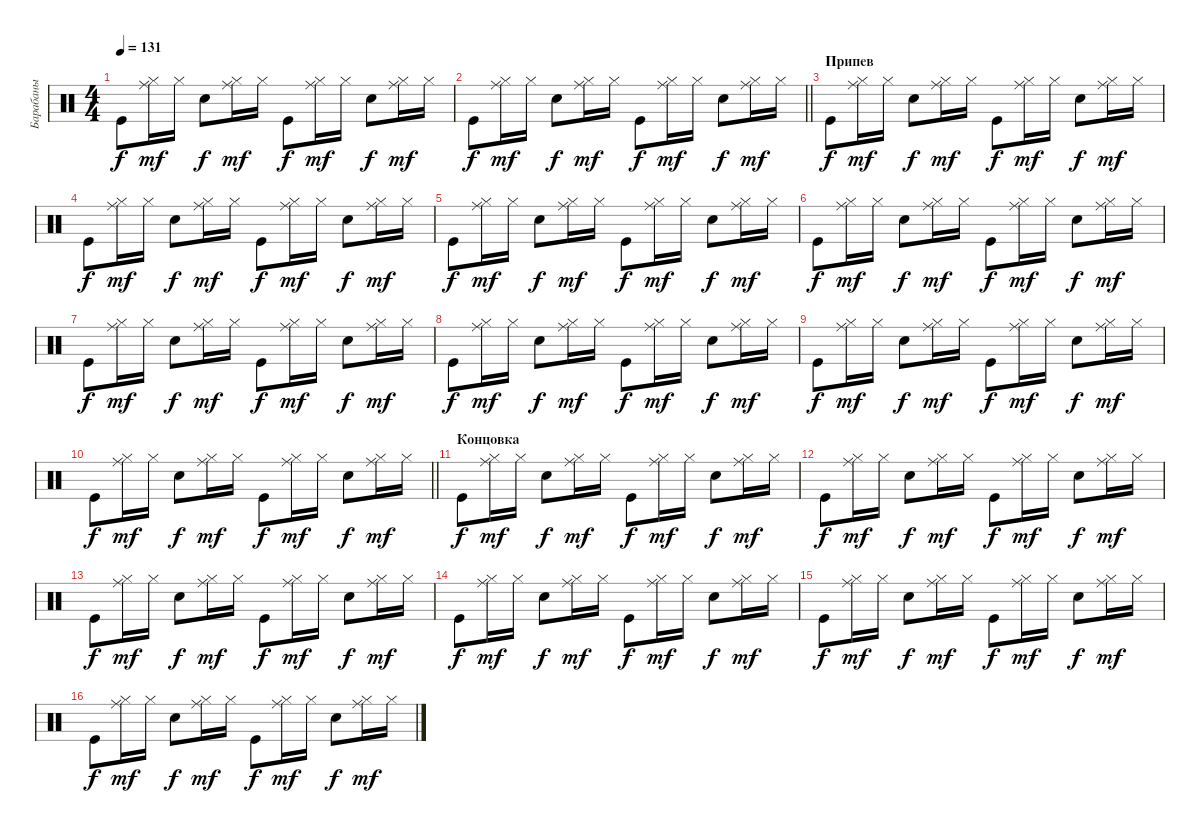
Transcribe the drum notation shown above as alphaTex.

\track ("Барабаны" "Барабаны") {instrument percussion}
\staff {score}
\articulation defaults
\ts (4 4)
\tempo 131
\clef neutral
\ks c "Kick (hit)".8{dy f}
("Hi-Hat (closed)" "Ride (middle)").16{dy mf} "Hi-Hat (closed)".16 "Snare (hit) 2".8{dy f} ("Hi-Hat (closed)" "Ride (middle)").16{dy mf} "Hi-Hat (closed)".16 "Kick (hit)".8{dy f} ("Hi-Hat (closed)" "Ride (middle)").16{dy mf} "Hi-Hat (closed)".16 "Snare (hit) 2".8{dy f} ("Hi-Hat (closed)" "Ride (middle)").16{dy mf} "Hi-Hat (closed)".16 |
\barLineRight lightlight "Kick (hit)".8{dy f}
("Hi-Hat (closed)" "Ride (middle)").16{dy mf} "Hi-Hat (closed)".16 "Snare (hit) 2".8{dy f} ("Hi-Hat (closed)" "Ride (middle)").16{dy mf} "Hi-Hat (closed)".16 "Kick (hit)".8{dy f} ("Hi-Hat (closed)" "Ride (middle)").16{dy mf} "Hi-Hat (closed)".16 "Snare (hit) 2".8{dy f} ("Hi-Hat (closed)" "Ride (middle)").16{dy mf} "Hi-Hat (closed)".16 |
\section ("" "Припев")
"Kick (hit)".8{dy f} ("Hi-Hat (closed)" "Ride (middle)").16{dy mf} "Hi-Hat (closed)".16 "Snare (hit) 2".8{dy f} ("Hi-Hat (closed)" "Ride (middle)").16{dy mf} "Hi-Hat (closed)".16 "Kick (hit)".8{dy f} ("Hi-Hat (closed)" "Ride (middle)").16{dy mf} "Hi-Hat (closed)".16 "Snare (hit) 2".8{dy f} ("Hi-Hat (closed)" "Ride (middle)").16{dy mf} "Hi-Hat (closed)".16 |
"Kick (hit)".8{dy f} ("Hi-Hat (closed)" "Ride (middle)").16{dy mf} "Hi-Hat (closed)".16 "Snare (hit) 2".8{dy f} ("Hi-Hat (closed)" "Ride (middle)").16{dy mf} "Hi-Hat (closed)".16 "Kick (hit)".8{dy f} ("Hi-Hat (closed)" "Ride (middle)").16{dy mf} "Hi-Hat (closed)".16 "Snare (hit) 2".8{dy f} ("Hi-Hat (closed)" "Ride (middle)").16{dy mf} "Hi-Hat (closed)".16 |
"Kick (hit)".8{dy f} ("Hi-Hat (closed)" "Ride (middle)").16{dy mf} "Hi-Hat (closed)".16 "Snare (hit) 2".8{dy f} ("Hi-Hat (closed)" "Ride (middle)").16{dy mf} "Hi-Hat (closed)".16 "Kick (hit)".8{dy f} ("Hi-Hat (closed)" "Ride (middle)").16{dy mf} "Hi-Hat (closed)".16 "Snare (hit) 2".8{dy f} ("Hi-Hat (closed)" "Ride (middle)").16{dy mf} "Hi-Hat (closed)".16 |
"Kick (hit)".8{dy f} ("Hi-Hat (closed)" "Ride (middle)").16{dy mf} "Hi-Hat (closed)".16 "Snare (hit) 2".8{dy f} ("Hi-Hat (closed)" "Ride (middle)").16{dy mf} "Hi-Hat (closed)".16 "Kick (hit)".8{dy f} ("Hi-Hat (closed)" "Ride (middle)").16{dy mf} "Hi-Hat (closed)".16 "Snare (hit) 2".8{dy f} ("Hi-Hat (closed)" "Ride (middle)").16{dy mf} "Hi-Hat (closed)".16 |
"Kick (hit)".8{dy f} ("Hi-Hat (closed)" "Ride (middle)").16{dy mf} "Hi-Hat (closed)".16 "Snare (hit) 2".8{dy f} ("Hi-Hat (closed)" "Ride (middle)").16{dy mf} "Hi-Hat (closed)".16 "Kick (hit)".8{dy f} ("Hi-Hat (closed)" "Ride (middle)").16{dy mf} "Hi-Hat (closed)".16 "Snare (hit) 2".8{dy f} ("Hi-Hat (closed)" "Ride (middle)").16{dy mf} "Hi-Hat (closed)".16 |
"Kick (hit)".8{dy f} ("Hi-Hat (closed)" "Ride (middle)").16{dy mf} "Hi-Hat (closed)".16 "Snare (hit) 2".8{dy f} ("Hi-Hat (closed)" "Ride (middle)").16{dy mf} "Hi-Hat (closed)".16 "Kick (hit)".8{dy f} ("Hi-Hat (closed)" "Ride (middle)").16{dy mf} "Hi-Hat (closed)".16 "Snare (hit) 2".8{dy f} ("Hi-Hat (closed)" "Ride (middle)").16{dy mf} "Hi-Hat (closed)".16 |
"Kick (hit)".8{dy f} ("Hi-Hat (closed)" "Ride (middle)").16{dy mf} "Hi-Hat (closed)".16 "Snare (hit) 2".8{dy f} ("Hi-Hat (closed)" "Ride (middle)").16{dy mf} "Hi-Hat (closed)".16 "Kick (hit)".8{dy f} ("Hi-Hat (closed)" "Ride (middle)").16{dy mf} "Hi-Hat (closed)".16 "Snare (hit) 2".8{dy f} ("Hi-Hat (closed)" "Ride (middle)").16{dy mf} "Hi-Hat (closed)".16 |
\barLineRight lightlight "Kick (hit)".8{dy f}
("Hi-Hat (closed)" "Ride (middle)").16{dy mf} "Hi-Hat (closed)".16 "Snare (hit) 2".8{dy f} ("Hi-Hat (closed)" "Ride (middle)").16{dy mf} "Hi-Hat (closed)".16 "Kick (hit)".8{dy f} ("Hi-Hat (closed)" "Ride (middle)").16{dy mf} "Hi-Hat (closed)".16 "Snare (hit) 2".8{dy f} ("Hi-Hat (closed)" "Ride (middle)").16{dy mf} "Hi-Hat (closed)".16 |
\section ("" "Концовка")
"Kick (hit)".8{dy f} ("Hi-Hat (closed)" "Ride (middle)").16{dy mf} "Hi-Hat (closed)".16 "Snare (hit) 2".8{dy f} ("Hi-Hat (closed)" "Ride (middle)").16{dy mf} "Hi-Hat (closed)".16 "Kick (hit)".8{dy f} ("Hi-Hat (closed)" "Ride (middle)").16{dy mf} "Hi-Hat (closed)".16 "Snare (hit) 2".8{dy f} ("Hi-Hat (closed)" "Ride (middle)").16{dy mf} "Hi-Hat (closed)".16 |
"Kick (hit)".8{dy f} ("Hi-Hat (closed)" "Ride (middle)").16{dy mf} "Hi-Hat (closed)".16 "Snare (hit) 2".8{dy f} ("Hi-Hat (closed)" "Ride (middle)").16{dy mf} "Hi-Hat (closed)".16 "Kick (hit)".8{dy f} ("Hi-Hat (closed)" "Ride (middle)").16{dy mf} "Hi-Hat (closed)".16 "Snare (hit) 2".8{dy f} ("Hi-Hat (closed)" "Ride (middle)").16{dy mf} "Hi-Hat (closed)".16 |
"Kick (hit)".8{dy f} ("Hi-Hat (closed)" "Ride (middle)").16{dy mf} "Hi-Hat (closed)".16 "Snare (hit) 2".8{dy f} ("Hi-Hat (closed)" "Ride (middle)").16{dy mf} "Hi-Hat (closed)".16 "Kick (hit)".8{dy f} ("Hi-Hat (closed)" "Ride (middle)").16{dy mf} "Hi-Hat (closed)".16 "Snare (hit) 2".8{dy f} ("Hi-Hat (closed)" "Ride (middle)").16{dy mf} "Hi-Hat (closed)".16 |
"Kick (hit)".8{dy f} ("Hi-Hat (closed)" "Ride (middle)").16{dy mf} "Hi-Hat (closed)".16 "Snare (hit) 2".8{dy f} ("Hi-Hat (closed)" "Ride (middle)").16{dy mf} "Hi-Hat (closed)".16 "Kick (hit)".8{dy f} ("Hi-Hat (closed)" "Ride (middle)").16{dy mf} "Hi-Hat (closed)".16 "Snare (hit) 2".8{dy f} ("Hi-Hat (closed)" "Ride (middle)").16{dy mf} "Hi-Hat (closed)".16 |
"Kick (hit)".8{dy f} ("Hi-Hat (closed)" "Ride (middle)").16{dy mf} "Hi-Hat (closed)".16 "Snare (hit) 2".8{dy f} ("Hi-Hat (closed)" "Ride (middle)").16{dy mf} "Hi-Hat (closed)".16 "Kick (hit)".8{dy f} ("Hi-Hat (closed)" "Ride (middle)").16{dy mf} "Hi-Hat (closed)".16 "Snare (hit) 2".8{dy f} ("Hi-Hat (closed)" "Ride (middle)").16{dy mf} "Hi-Hat (closed)".16 |
"Kick (hit)".8{dy f} ("Hi-Hat (closed)" "Ride (middle)").16{dy mf} "Hi-Hat (closed)".16 "Snare (hit) 2".8{dy f} ("Hi-Hat (closed)" "Ride (middle)").16{dy mf} "Hi-Hat (closed)".16 "Kick (hit)".8{dy f} ("Hi-Hat (closed)" "Ride (middle)").16{dy mf} "Hi-Hat (closed)".16 "Snare (hit) 2".8{dy f} ("Hi-Hat (closed)" "Ride (middle)").16{dy mf} "Hi-Hat (closed)".16
